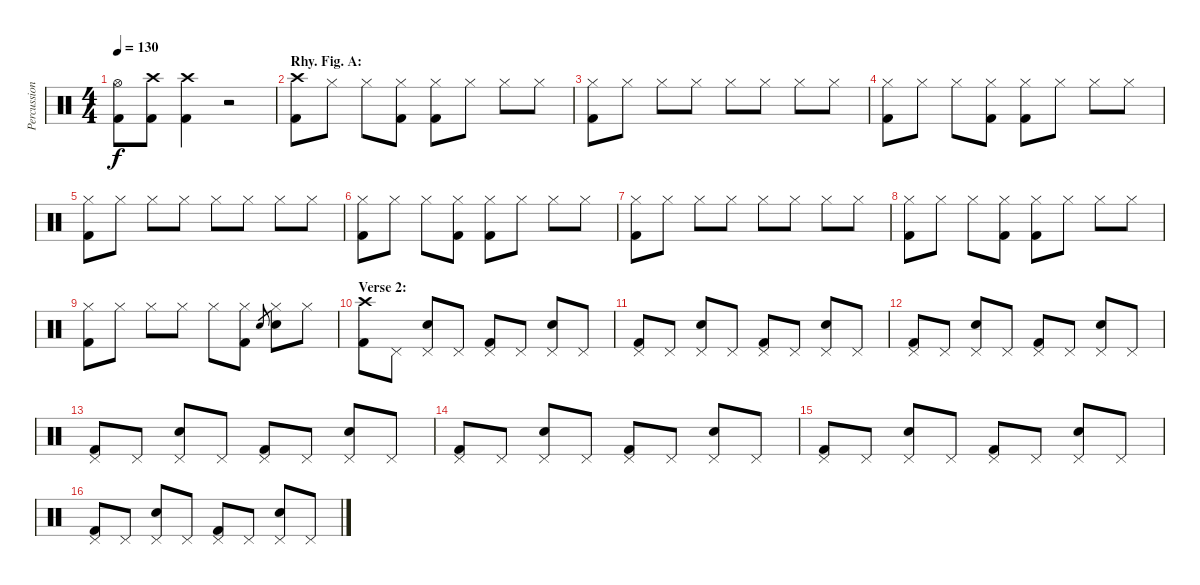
\track ("Percussion" "Percussion") {instrument percussion}
\staff {score}
\articulation defaults
\ts (4 4)
\tempo 130
\clef neutral
\ks c
("Hi-Hat (open)"{t} "Kick (hit) 2"{t}).8{dy f} ("Crash high (hit)" "Kick (hit) 2").8 ("Crash high (hit)" "Kick (hit) 2").4 r.2 |
\section ("" "Rhy. Fig. A:")
("Crash high (hit)" "Kick (hit) 2").8 "Hi-Hat (closed)".8 "Hi-Hat (closed)".8 ("Hi-Hat (closed)" "Kick (hit) 2").8 ("Hi-Hat (closed)" "Kick (hit) 2").8 "Hi-Hat (closed)".8 "Hi-Hat (closed)".8 "Hi-Hat (closed)".8 |
("Hi-Hat (closed)" "Kick (hit) 2").8 "Hi-Hat (closed)".8 "Hi-Hat (closed)".8 "Hi-Hat (closed)".8 "Hi-Hat (closed)".8 "Hi-Hat (closed)".8 "Hi-Hat (closed)".8 "Hi-Hat (closed)".8 |
("Hi-Hat (closed)" "Kick (hit) 2").8 "Hi-Hat (closed)".8 "Hi-Hat (closed)".8 ("Hi-Hat (closed)" "Kick (hit) 2").8 ("Hi-Hat (closed)" "Kick (hit) 2").8 "Hi-Hat (closed)".8 "Hi-Hat (closed)".8 "Hi-Hat (closed)".8 |
("Hi-Hat (closed)" "Kick (hit) 2").8 "Hi-Hat (closed)".8 "Hi-Hat (closed)".8 "Hi-Hat (closed)".8 "Hi-Hat (closed)".8 "Hi-Hat (closed)".8 "Hi-Hat (closed)".8 "Hi-Hat (closed)".8 |
("Hi-Hat (closed)" "Kick (hit) 2").8 "Hi-Hat (closed)".8 "Hi-Hat (closed)".8 ("Hi-Hat (closed)" "Kick (hit) 2").8 ("Hi-Hat (closed)" "Kick (hit) 2").8 "Hi-Hat (closed)".8 "Hi-Hat (closed)".8 "Hi-Hat (closed)".8 |
("Hi-Hat (closed)" "Kick (hit) 2").8 "Hi-Hat (closed)".8 "Hi-Hat (closed)".8 "Hi-Hat (closed)".8 "Hi-Hat (closed)".8 "Hi-Hat (closed)".8 "Hi-Hat (closed)".8 "Hi-Hat (closed)".8 |
("Hi-Hat (closed)" "Kick (hit) 2").8 "Hi-Hat (closed)".8 "Hi-Hat (closed)".8 ("Hi-Hat (closed)" "Kick (hit) 2").8 ("Hi-Hat (closed)" "Kick (hit) 2").8 "Hi-Hat (closed)".8 "Hi-Hat (closed)".8 "Hi-Hat (closed)".8 |
("Hi-Hat (closed)" "Kick (hit) 2").8 "Hi-Hat (closed)".8 "Hi-Hat (closed)".8 "Hi-Hat (closed)".8 "Hi-Hat (closed)".8 ("Hi-Hat (closed)" "Kick (hit) 2").8 "Electric Snare (hit)".8{gr} ("Hi-Hat (closed)" "Electric Snare (hit)").8 "Hi-Hat (closed)".8 |
\section ("" "Verse 2:")
("Crash high (hit)" "Kick (hit) 2").8 "Pedal Hi-Hat (hit)".8 ("Pedal Hi-Hat (hit)" "Electric Snare (hit)").8 "Pedal Hi-Hat (hit)".8 ("Pedal Hi-Hat (hit)" "Kick (hit) 2").8 "Pedal Hi-Hat (hit)".8 ("Pedal Hi-Hat (hit)" "Electric Snare (hit)").8 "Pedal Hi-Hat (hit)".8 |
("Pedal Hi-Hat (hit)" "Kick (hit) 2").8 "Pedal Hi-Hat (hit)".8 ("Pedal Hi-Hat (hit)" "Electric Snare (hit)").8 "Pedal Hi-Hat (hit)".8 ("Pedal Hi-Hat (hit)" "Kick (hit) 2").8 "Pedal Hi-Hat (hit)".8 ("Pedal Hi-Hat (hit)" "Electric Snare (hit)").8 "Pedal Hi-Hat (hit)".8 |
("Pedal Hi-Hat (hit)" "Kick (hit) 2").8 "Pedal Hi-Hat (hit)".8 ("Pedal Hi-Hat (hit)" "Electric Snare (hit)").8 "Pedal Hi-Hat (hit)".8 ("Pedal Hi-Hat (hit)" "Kick (hit) 2").8 "Pedal Hi-Hat (hit)".8 ("Pedal Hi-Hat (hit)" "Electric Snare (hit)").8 "Pedal Hi-Hat (hit)".8 |
("Pedal Hi-Hat (hit)" "Kick (hit) 2").8 "Pedal Hi-Hat (hit)".8 ("Pedal Hi-Hat (hit)" "Electric Snare (hit)").8 "Pedal Hi-Hat (hit)".8 ("Pedal Hi-Hat (hit)" "Kick (hit) 2").8 "Pedal Hi-Hat (hit)".8 ("Pedal Hi-Hat (hit)" "Electric Snare (hit)").8 "Pedal Hi-Hat (hit)".8 |
("Pedal Hi-Hat (hit)" "Kick (hit) 2").8 "Pedal Hi-Hat (hit)".8 ("Pedal Hi-Hat (hit)" "Electric Snare (hit)").8 "Pedal Hi-Hat (hit)".8 ("Pedal Hi-Hat (hit)" "Kick (hit) 2").8 "Pedal Hi-Hat (hit)".8 ("Pedal Hi-Hat (hit)" "Electric Snare (hit)").8 "Pedal Hi-Hat (hit)".8 |
("Pedal Hi-Hat (hit)" "Kick (hit) 2").8 "Pedal Hi-Hat (hit)".8 ("Pedal Hi-Hat (hit)" "Electric Snare (hit)").8 "Pedal Hi-Hat (hit)".8 ("Pedal Hi-Hat (hit)" "Kick (hit) 2").8 "Pedal Hi-Hat (hit)".8 ("Pedal Hi-Hat (hit)" "Electric Snare (hit)").8 "Pedal Hi-Hat (hit)".8 |
("Pedal Hi-Hat (hit)" "Kick (hit) 2").8 "Pedal Hi-Hat (hit)".8 ("Pedal Hi-Hat (hit)" "Electric Snare (hit)").8 "Pedal Hi-Hat (hit)".8 ("Pedal Hi-Hat (hit)" "Kick (hit) 2").8 "Pedal Hi-Hat (hit)".8 ("Pedal Hi-Hat (hit)" "Electric Snare (hit)").8 "Pedal Hi-Hat (hit)".8
